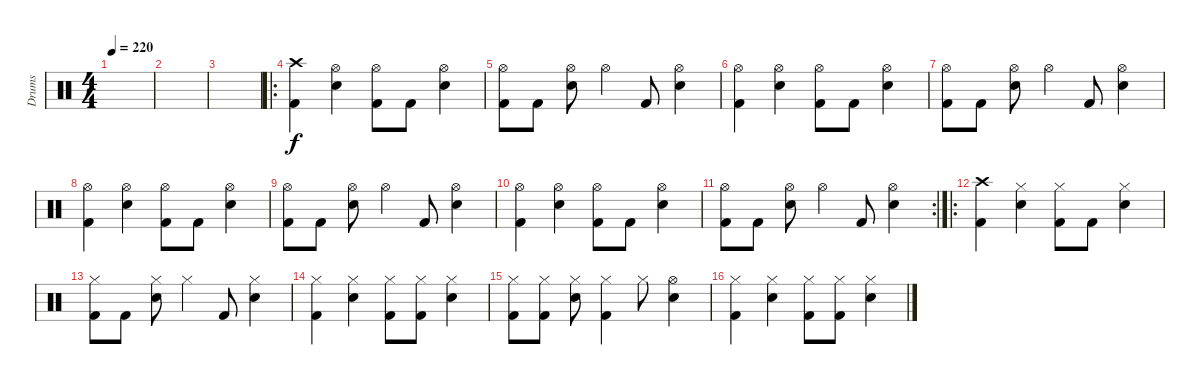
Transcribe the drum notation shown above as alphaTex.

\track ("Drums" "Drums") {instrument percussion}
\staff {score}
\articulation defaults
\ts (4 4)
\tempo 220
\clef neutral
\ks c
|
|
|
\ro
("Crash high (hit)" "Kick (hit) 2").4 ("Hi-Hat (open)" "Snare (hit) 2").4 ("Hi-Hat (open)" "Kick (hit) 2").8 "Kick (hit) 2".8 ("Hi-Hat (open)" "Snare (hit) 2").4 |
("Hi-Hat (open)" "Kick (hit) 2").8 "Kick (hit) 2".8 ("Hi-Hat (open)" "Snare (hit) 2").8 "Hi-Hat (open)".4 "Kick (hit) 2".8 ("Hi-Hat (open)" "Snare (hit) 2").4 |
("Hi-Hat (open)" "Kick (hit) 2").4 ("Hi-Hat (open)" "Snare (hit) 2").4 ("Hi-Hat (open)" "Kick (hit) 2").8 "Kick (hit) 2".8 ("Hi-Hat (open)" "Snare (hit) 2").4 |
("Hi-Hat (open)" "Kick (hit) 2").8 "Kick (hit) 2".8 ("Hi-Hat (open)" "Snare (hit) 2").8 "Hi-Hat (open)".4 "Kick (hit) 2".8 ("Hi-Hat (open)" "Snare (hit) 2").4 |
("Hi-Hat (open)" "Kick (hit) 2").4 ("Hi-Hat (open)" "Snare (hit) 2").4 ("Hi-Hat (open)" "Kick (hit) 2").8 "Kick (hit) 2".8 ("Hi-Hat (open)" "Snare (hit) 2").4 |
("Hi-Hat (open)" "Kick (hit) 2").8 "Kick (hit) 2".8 ("Hi-Hat (open)" "Snare (hit) 2").8 "Hi-Hat (open)".4 "Kick (hit) 2".8 ("Hi-Hat (open)" "Snare (hit) 2").4 |
("Hi-Hat (open)" "Kick (hit) 2").4 ("Hi-Hat (open)" "Snare (hit) 2").4 ("Hi-Hat (open)" "Kick (hit) 2").8 "Kick (hit) 2".8 ("Hi-Hat (open)" "Snare (hit) 2").4 |
\rc 2
("Hi-Hat (open)" "Kick (hit) 2").8 "Kick (hit) 2".8 ("Hi-Hat (open)" "Snare (hit) 2").8 "Hi-Hat (open)".4 "Kick (hit) 2".8 ("Hi-Hat (open)" "Snare (hit) 2").4 |
\ro
("Crash high (hit)" "Kick (hit) 2").4 ("Hi-Hat (closed)" "Snare (hit) 2").4 ("Hi-Hat (closed)" "Kick (hit) 2").8 "Kick (hit) 2".8 ("Hi-Hat (closed)" "Snare (hit) 2").4 |
("Hi-Hat (closed)" "Kick (hit) 2").8 "Kick (hit) 2".8 ("Hi-Hat (closed)" "Snare (hit) 2").8 "Hi-Hat (closed)".4 "Kick (hit) 2".8 ("Hi-Hat (closed)" "Snare (hit) 2").4 |
("Hi-Hat (closed)" "Kick (hit) 2").4 ("Hi-Hat (closed)" "Snare (hit) 2").4 ("Hi-Hat (closed)" "Kick (hit) 2").8 ("Hi-Hat (closed)" "Kick (hit) 2").8 ("Hi-Hat (closed)" "Snare (hit) 2").4 |
("Hi-Hat (closed)" "Kick (hit) 2").8 ("Hi-Hat (closed)" "Kick (hit) 2").8 ("Hi-Hat (closed)" "Snare (hit) 2").8 ("Hi-Hat (closed)" "Kick (hit) 2").4 "Hi-Hat (closed)".8 ("Hi-Hat (open)" "Snare (hit) 2").4 |
("Hi-Hat (closed)" "Kick (hit) 2").4 ("Hi-Hat (closed)" "Snare (hit) 2").4 ("Hi-Hat (closed)" "Kick (hit) 2").8 ("Hi-Hat (closed)" "Kick (hit) 2").8 ("Hi-Hat (closed)" "Snare (hit) 2").4
